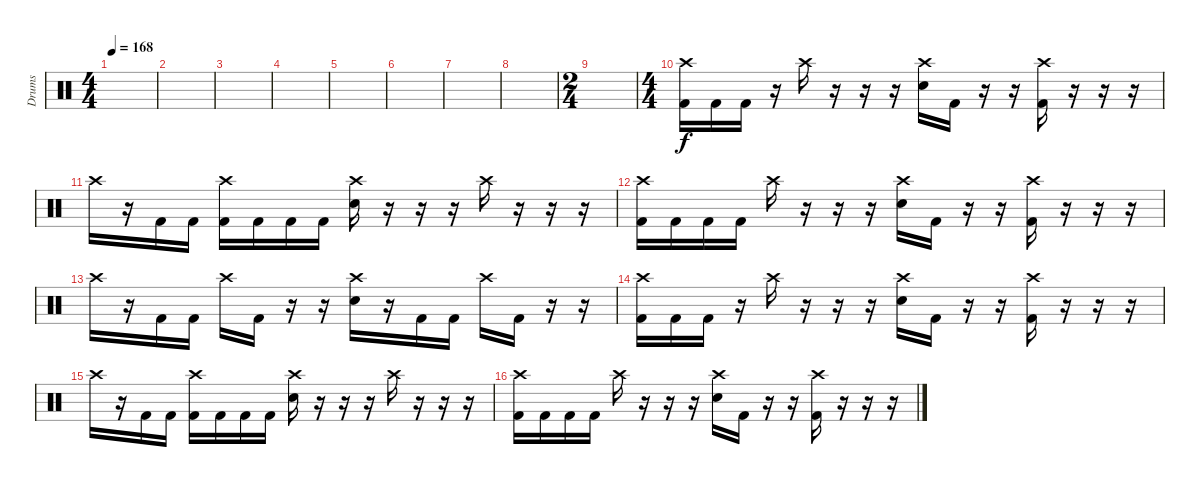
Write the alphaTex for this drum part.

\track ("Drums" "Drums") {instrument percussion}
\staff {score}
\articulation defaults
\ts (4 4)
\tempo 168
\clef neutral
\ks c
|
|
|
|
|
|
|
|
\ts (2 4)
|
\ts (4 4)
("Crash high (hit)" "Kick (hit) 2").16 "Kick (hit) 2".16 "Kick (hit) 2".16 r.16 "Crash high (hit)".16 r.16 r.16 r.16 ("Crash high (hit)" "Snare (hit) 2").16 "Kick (hit) 2".16 r.16 r.16 ("Crash high (hit)" "Kick (hit) 2").16 r.16 r.16 r.16 |
"Crash high (hit)".16 r.16 "Kick (hit) 2".16 "Kick (hit) 2".16 ("Crash high (hit)" "Kick (hit) 2").16 "Kick (hit) 2".16 "Kick (hit) 2".16 "Kick (hit) 2".16 ("Crash high (hit)" "Snare (hit) 2").16 r.16 r.16 r.16 "Crash high (hit)".16 r.16 r.16 r.16 |
("Crash high (hit)" "Kick (hit) 2").16 "Kick (hit) 2".16 "Kick (hit) 2".16 "Kick (hit) 2".16 "Crash high (hit)".16 r.16 r.16 r.16 ("Crash high (hit)" "Snare (hit) 2").16 "Kick (hit) 2".16 r.16 r.16 ("Crash high (hit)" "Kick (hit) 2").16 r.16 r.16 r.16 |
"Crash high (hit)".16 r.16 "Kick (hit) 2".16 "Kick (hit) 2".16 "Crash high (hit)".16 "Kick (hit) 2".16 r.16 r.16 ("Crash high (hit)" "Snare (hit) 2").16 r.16 "Kick (hit) 2".16 "Kick (hit) 2".16 "Crash high (hit)".16 "Kick (hit) 2".16 r.16 r.16 |
("Crash high (hit)" "Kick (hit) 2").16 "Kick (hit) 2".16 "Kick (hit) 2".16 r.16 "Crash high (hit)".16 r.16 r.16 r.16 ("Crash high (hit)" "Snare (hit) 2").16 "Kick (hit) 2".16 r.16 r.16 ("Crash high (hit)" "Kick (hit) 2").16 r.16 r.16 r.16 |
"Crash high (hit)".16 r.16 "Kick (hit) 2".16 "Kick (hit) 2".16 ("Crash high (hit)" "Kick (hit) 2").16 "Kick (hit) 2".16 "Kick (hit) 2".16 "Kick (hit) 2".16 ("Crash high (hit)" "Snare (hit) 2").16 r.16 r.16 r.16 "Crash high (hit)".16 r.16 r.16 r.16 |
("Crash high (hit)" "Kick (hit) 2").16 "Kick (hit) 2".16 "Kick (hit) 2".16 "Kick (hit) 2".16 "Crash high (hit)".16 r.16 r.16 r.16 ("Crash high (hit)" "Snare (hit) 2").16 "Kick (hit) 2".16 r.16 r.16 ("Crash high (hit)" "Kick (hit) 2").16 r.16 r.16 r.16
